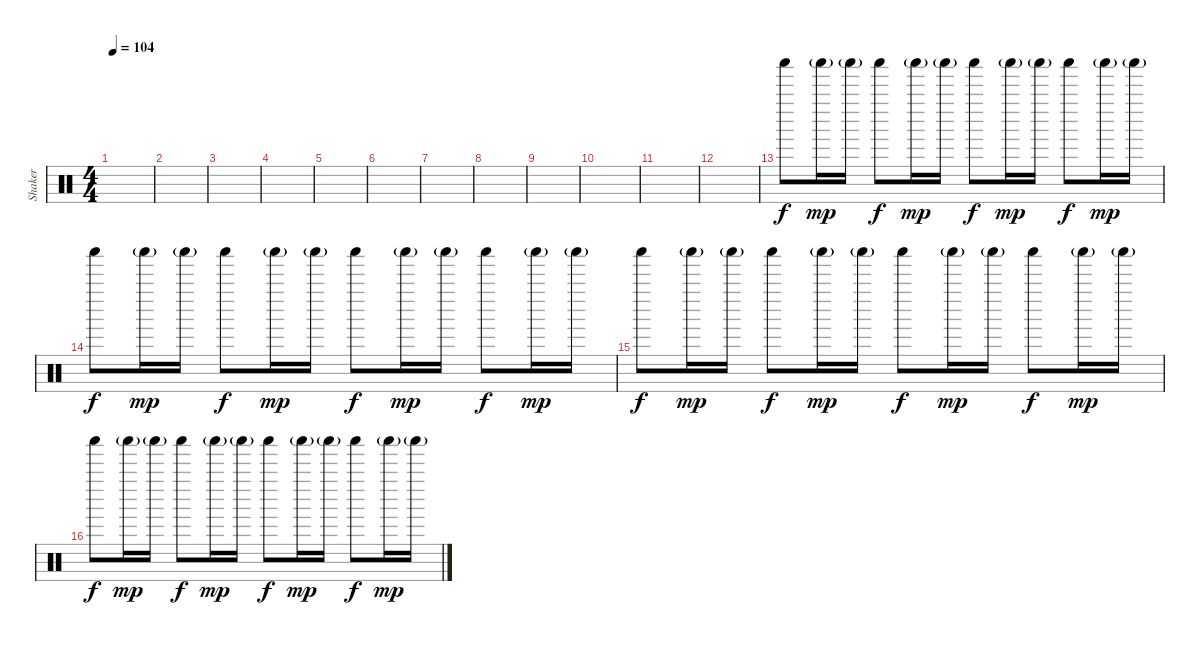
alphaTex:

\track ("Shaker" "Shaker") {instrument percussion}
\staff {score}
\articulation defaults
\ts (4 4)
\tempo 104
\clef neutral
\ks c
|
|
|
|
|
|
|
|
|
|
|
|
"Shaker (hit)".8 "Shaker (hit)"{g}.16{dy mp} "Shaker (hit)"{g}.16 "Shaker (hit)".8{dy f} "Shaker (hit)"{g}.16{dy mp} "Shaker (hit)"{g}.16 "Shaker (hit)".8{dy f} "Shaker (hit)"{g}.16{dy mp} "Shaker (hit)"{g}.16 "Shaker (hit)".8{dy f} "Shaker (hit)"{g}.16{dy mp} "Shaker (hit)"{g}.16 |
"Shaker (hit)".8{dy f} "Shaker (hit)"{g}.16{dy mp} "Shaker (hit)"{g}.16 "Shaker (hit)".8{dy f} "Shaker (hit)"{g}.16{dy mp} "Shaker (hit)"{g}.16 "Shaker (hit)".8{dy f} "Shaker (hit)"{g}.16{dy mp} "Shaker (hit)"{g}.16 "Shaker (hit)".8{dy f} "Shaker (hit)"{g}.16{dy mp} "Shaker (hit)"{g}.16 |
"Shaker (hit)".8{dy f} "Shaker (hit)"{g}.16{dy mp} "Shaker (hit)"{g}.16 "Shaker (hit)".8{dy f} "Shaker (hit)"{g}.16{dy mp} "Shaker (hit)"{g}.16 "Shaker (hit)".8{dy f} "Shaker (hit)"{g}.16{dy mp} "Shaker (hit)"{g}.16 "Shaker (hit)".8{dy f} "Shaker (hit)"{g}.16{dy mp} "Shaker (hit)"{g}.16 |
"Shaker (hit)".8{dy f} "Shaker (hit)"{g}.16{dy mp} "Shaker (hit)"{g}.16 "Shaker (hit)".8{dy f} "Shaker (hit)"{g}.16{dy mp} "Shaker (hit)"{g}.16 "Shaker (hit)".8{dy f} "Shaker (hit)"{g}.16{dy mp} "Shaker (hit)"{g}.16 "Shaker (hit)".8{dy f} "Shaker (hit)"{g}.16{dy mp} "Shaker (hit)"{g}.16
